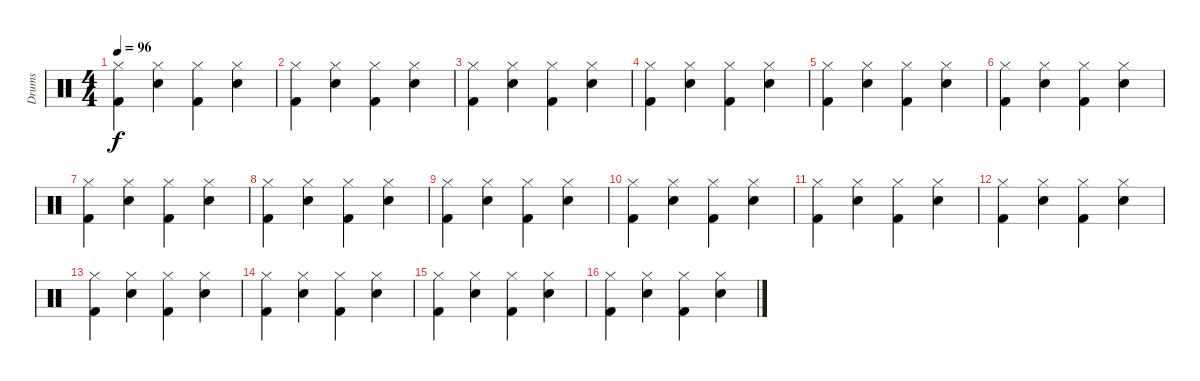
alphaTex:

\track ("Drums" "Drums") {instrument percussion}
\staff {score}
\articulation defaults
\ts (4 4)
\tempo 96
\clef neutral
\ks c
("Hi-Hat (closed)" "Kick (hit) 2").4{dy f} ("Hi-Hat (closed)" "Snare (hit) 2").4 ("Hi-Hat (closed)" "Kick (hit) 2").4 ("Hi-Hat (closed)" "Snare (hit) 2").4 |
("Hi-Hat (closed)" "Kick (hit) 2").4 ("Hi-Hat (closed)" "Snare (hit) 2").4 ("Hi-Hat (closed)" "Kick (hit) 2").4 ("Hi-Hat (closed)" "Snare (hit) 2").4 |
("Hi-Hat (closed)" "Kick (hit) 2").4 ("Hi-Hat (closed)" "Snare (hit) 2").4 ("Hi-Hat (closed)" "Kick (hit) 2").4 ("Hi-Hat (closed)" "Snare (hit) 2").4 |
("Hi-Hat (closed)" "Kick (hit) 2").4 ("Hi-Hat (closed)" "Snare (hit) 2").4 ("Hi-Hat (closed)" "Kick (hit) 2").4 ("Hi-Hat (closed)" "Snare (hit) 2").4 |
("Hi-Hat (closed)" "Kick (hit) 2").4 ("Hi-Hat (closed)" "Snare (hit) 2").4 ("Hi-Hat (closed)" "Kick (hit) 2").4 ("Hi-Hat (closed)" "Snare (hit) 2").4 |
("Hi-Hat (closed)" "Kick (hit) 2").4 ("Hi-Hat (closed)" "Snare (hit) 2").4 ("Hi-Hat (closed)" "Kick (hit) 2").4 ("Hi-Hat (closed)" "Snare (hit) 2").4 |
("Hi-Hat (closed)" "Kick (hit) 2").4 ("Hi-Hat (closed)" "Snare (hit) 2").4 ("Hi-Hat (closed)" "Kick (hit) 2").4 ("Hi-Hat (closed)" "Snare (hit) 2").4 |
("Hi-Hat (closed)" "Kick (hit) 2").4 ("Hi-Hat (closed)" "Snare (hit) 2").4 ("Hi-Hat (closed)" "Kick (hit) 2").4 ("Hi-Hat (closed)" "Snare (hit) 2").4 |
("Hi-Hat (closed)" "Kick (hit) 2").4 ("Hi-Hat (closed)" "Snare (hit) 2").4 ("Hi-Hat (closed)" "Kick (hit) 2").4 ("Hi-Hat (closed)" "Snare (hit) 2").4 |
("Hi-Hat (closed)" "Kick (hit) 2").4 ("Hi-Hat (closed)" "Snare (hit) 2").4 ("Hi-Hat (closed)" "Kick (hit) 2").4 ("Hi-Hat (closed)" "Snare (hit) 2").4 |
("Hi-Hat (closed)" "Kick (hit) 2").4 ("Hi-Hat (closed)" "Snare (hit) 2").4 ("Hi-Hat (closed)" "Kick (hit) 2").4 ("Hi-Hat (closed)" "Snare (hit) 2").4 |
("Hi-Hat (closed)" "Kick (hit) 2").4 ("Hi-Hat (closed)" "Snare (hit) 2").4 ("Hi-Hat (closed)" "Kick (hit) 2").4 ("Hi-Hat (closed)" "Snare (hit) 2").4 |
("Hi-Hat (closed)" "Kick (hit) 2").4 ("Hi-Hat (closed)" "Snare (hit) 2").4 ("Hi-Hat (closed)" "Kick (hit) 2").4 ("Hi-Hat (closed)" "Snare (hit) 2").4 |
("Hi-Hat (closed)" "Kick (hit) 2").4 ("Hi-Hat (closed)" "Snare (hit) 2").4 ("Hi-Hat (closed)" "Kick (hit) 2").4 ("Hi-Hat (closed)" "Snare (hit) 2").4 |
("Hi-Hat (closed)" "Kick (hit) 2").4 ("Hi-Hat (closed)" "Snare (hit) 2").4 ("Hi-Hat (closed)" "Kick (hit) 2").4 ("Hi-Hat (closed)" "Snare (hit) 2").4 |
("Hi-Hat (closed)" "Kick (hit) 2").4 ("Hi-Hat (closed)" "Snare (hit) 2").4 ("Hi-Hat (closed)" "Kick (hit) 2").4 ("Hi-Hat (closed)" "Snare (hit) 2").4
